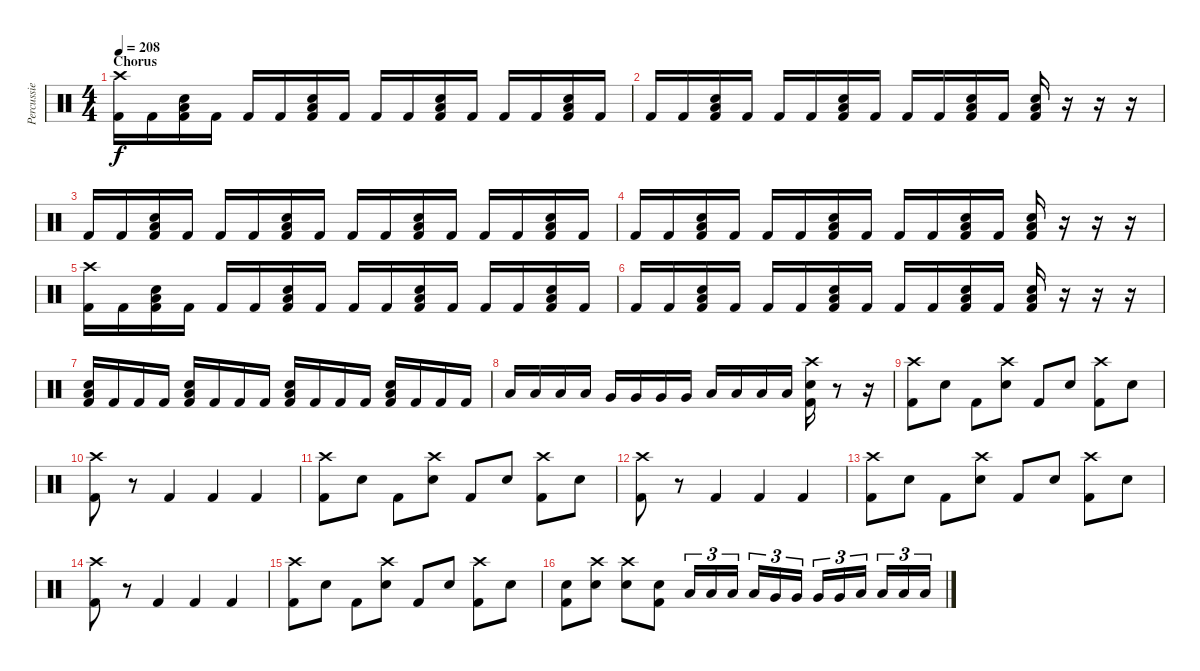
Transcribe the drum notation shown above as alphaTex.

\track ("Percussie" "Percussie") {instrument percussion}
\staff {score}
\articulation defaults
\ts (4 4)
\section ("" "Chorus")
\tempo 208
\clef neutral
\ks c
("Crash high (hit)" "Kick (hit) 2").16{dy f} "Kick (hit) 2".16 ("Low Tom (hit)" "Electric Snare (hit)" "Kick (hit) 2").16 "Kick (hit) 2".16 "Kick (hit) 2".16 "Kick (hit) 2".16 ("Low Tom (hit)" "Electric Snare (hit)" "Kick (hit) 2").16 "Kick (hit) 2".16 "Kick (hit) 2".16 "Kick (hit) 2".16 ("Low Tom (hit)" "Electric Snare (hit)" "Kick (hit) 2").16 "Kick (hit) 2".16 "Kick (hit) 2".16 "Kick (hit) 2".16 ("Low Tom (hit)" "Electric Snare (hit)" "Kick (hit) 2").16 "Kick (hit) 2".16 |
"Kick (hit) 2".16 "Kick (hit) 2".16 ("Low Tom (hit)" "Electric Snare (hit)" "Kick (hit) 2").16 "Kick (hit) 2".16 "Kick (hit) 2".16 "Kick (hit) 2".16 ("Low Tom (hit)" "Electric Snare (hit)" "Kick (hit) 2").16 "Kick (hit) 2".16 "Kick (hit) 2".16 "Kick (hit) 2".16 ("Low Tom (hit)" "Electric Snare (hit)" "Kick (hit) 2").16 "Kick (hit) 2".16 ("Low Tom (hit)" "Electric Snare (hit)" "Kick (hit) 2").16 r.16 r.16 r.16 |
"Kick (hit) 2".16 "Kick (hit) 2".16 ("Low Tom (hit)" "Electric Snare (hit)" "Kick (hit) 2").16 "Kick (hit) 2".16 "Kick (hit) 2".16 "Kick (hit) 2".16 ("Low Tom (hit)" "Electric Snare (hit)" "Kick (hit) 2").16 "Kick (hit) 2".16 "Kick (hit) 2".16 "Kick (hit) 2".16 ("Low Tom (hit)" "Electric Snare (hit)" "Kick (hit) 2").16 "Kick (hit) 2".16 "Kick (hit) 2".16 "Kick (hit) 2".16 ("Low Tom (hit)" "Electric Snare (hit)" "Kick (hit) 2").16 "Kick (hit) 2".16 |
"Kick (hit) 2".16 "Kick (hit) 2".16 ("Low Tom (hit)" "Electric Snare (hit)" "Kick (hit) 2").16 "Kick (hit) 2".16 "Kick (hit) 2".16 "Kick (hit) 2".16 ("Low Tom (hit)" "Electric Snare (hit)" "Kick (hit) 2").16 "Kick (hit) 2".16 "Kick (hit) 2".16 "Kick (hit) 2".16 ("Low Tom (hit)" "Electric Snare (hit)" "Kick (hit) 2").16 "Kick (hit) 2".16 ("Low Tom (hit)" "Electric Snare (hit)" "Kick (hit) 2").16 r.16 r.16 r.16 |
("Crash high (hit)" "Kick (hit) 2").16 "Kick (hit) 2".16 ("Low Tom (hit)" "Electric Snare (hit)" "Kick (hit) 2").16 "Kick (hit) 2".16 "Kick (hit) 2".16 "Kick (hit) 2".16 ("Low Tom (hit)" "Electric Snare (hit)" "Kick (hit) 2").16 "Kick (hit) 2".16 "Kick (hit) 2".16 "Kick (hit) 2".16 ("Low Tom (hit)" "Electric Snare (hit)" "Kick (hit) 2").16 "Kick (hit) 2".16 "Kick (hit) 2".16 "Kick (hit) 2".16 ("Low Tom (hit)" "Electric Snare (hit)" "Kick (hit) 2").16 "Kick (hit) 2".16 |
"Kick (hit) 2".16 "Kick (hit) 2".16 ("Low Tom (hit)" "Electric Snare (hit)" "Kick (hit) 2").16 "Kick (hit) 2".16 "Kick (hit) 2".16 "Kick (hit) 2".16 ("Low Tom (hit)" "Electric Snare (hit)" "Kick (hit) 2").16 "Kick (hit) 2".16 "Kick (hit) 2".16 "Kick (hit) 2".16 ("Low Tom (hit)" "Electric Snare (hit)" "Kick (hit) 2").16 "Kick (hit) 2".16 ("Low Tom (hit)" "Electric Snare (hit)" "Kick (hit) 2").16 r.16 r.16 r.16 |
("Low Tom (hit)" "Electric Snare (hit)" "Kick (hit) 2").16 "Kick (hit) 2".16 "Kick (hit) 2".16 "Kick (hit) 2".16 ("Low Tom (hit)" "Electric Snare (hit)" "Kick (hit) 2").16 "Kick (hit) 2".16 "Kick (hit) 2".16 "Kick (hit) 2".16 ("Low Tom (hit)" "Electric Snare (hit)" "Kick (hit) 2").16 "Kick (hit) 2".16 "Kick (hit) 2".16 "Kick (hit) 2".16 ("Low Tom (hit)" "Electric Snare (hit)" "Kick (hit) 2").16 "Kick (hit) 2".16 "Kick (hit) 2".16 "Kick (hit) 2".16 |
"Low Tom (hit)".16 "Low Tom (hit)".16 "Low Tom (hit)".16 "Low Tom (hit)".16 "Very Low Tom (hit)".16 "Very Low Tom (hit)".16 "Very Low Tom (hit)".16 "Very Low Tom (hit)".16 "Low Floor Tom (hit)".16 "Low Floor Tom (hit)".16 "Low Floor Tom (hit)".16 "Low Floor Tom (hit)".16 ("Crash high (hit)" "Electric Snare (hit)" "Kick (hit) 2").16 r.8 r.16 |
("Crash high (hit)" "Kick (hit) 2").8 "Electric Snare (hit)".8 "Kick (hit) 2".8 ("Crash high (hit)" "Electric Snare (hit)").8 "Kick (hit) 2".8 "Electric Snare (hit)".8 ("Crash high (hit)" "Kick (hit) 2").8 "Electric Snare (hit)".8 |
("Crash high (hit)" "Kick (hit) 2").8 r.8 "Kick (hit) 2".4 "Kick (hit) 2".4 "Kick (hit) 2".4 |
("Crash high (hit)" "Kick (hit) 2").8 "Electric Snare (hit)".8 "Kick (hit) 2".8 ("Crash high (hit)" "Electric Snare (hit)").8 "Kick (hit) 2".8 "Electric Snare (hit)".8 ("Crash high (hit)" "Kick (hit) 2").8 "Electric Snare (hit)".8 |
("Crash high (hit)" "Kick (hit) 2").8 r.8 "Kick (hit) 2".4 "Kick (hit) 2".4 "Kick (hit) 2".4 |
("Crash high (hit)" "Kick (hit) 2").8 "Electric Snare (hit)".8 "Kick (hit) 2".8 ("Crash high (hit)" "Electric Snare (hit)").8 "Kick (hit) 2".8 "Electric Snare (hit)".8 ("Crash high (hit)" "Kick (hit) 2").8 "Electric Snare (hit)".8 |
("Crash high (hit)" "Kick (hit) 2").8 r.8 "Kick (hit) 2".4 "Kick (hit) 2".4 "Kick (hit) 2".4 |
("Crash high (hit)" "Kick (hit) 2").8 "Electric Snare (hit)".8 "Kick (hit) 2".8 ("Crash high (hit)" "Electric Snare (hit)").8 "Kick (hit) 2".8 "Electric Snare (hit)".8 ("Crash high (hit)" "Kick (hit) 2").8 "Electric Snare (hit)".8 |
("Electric Snare (hit)" "Kick (hit) 2").8 ("Crash high (hit)" "Electric Snare (hit)").8 ("Crash high (hit)" "Electric Snare (hit)").8 ("Electric Snare (hit)" "Kick (hit) 2").8 "Low Tom (hit)".16{tu (3 2)} "Low Tom (hit)".16{tu (3 2)} "Low Tom (hit)".16{tu (3 2) beam splitsecondary} "Low Tom (hit)".16{tu (3 2)} "Very Low Tom (hit)".16{tu (3 2)} "Very Low Tom (hit)".16{tu (3 2)} "Very Low Tom (hit)".16{tu (3 2)} "Very Low Tom (hit)".16{tu (3 2)} "Low Floor Tom (hit)".16{tu (3 2) beam splitsecondary} "Low Floor Tom (hit)".16{tu (3 2)} "Low Floor Tom (hit)".16{tu (3 2)} "Low Floor Tom (hit)".16{tu (3 2)}
